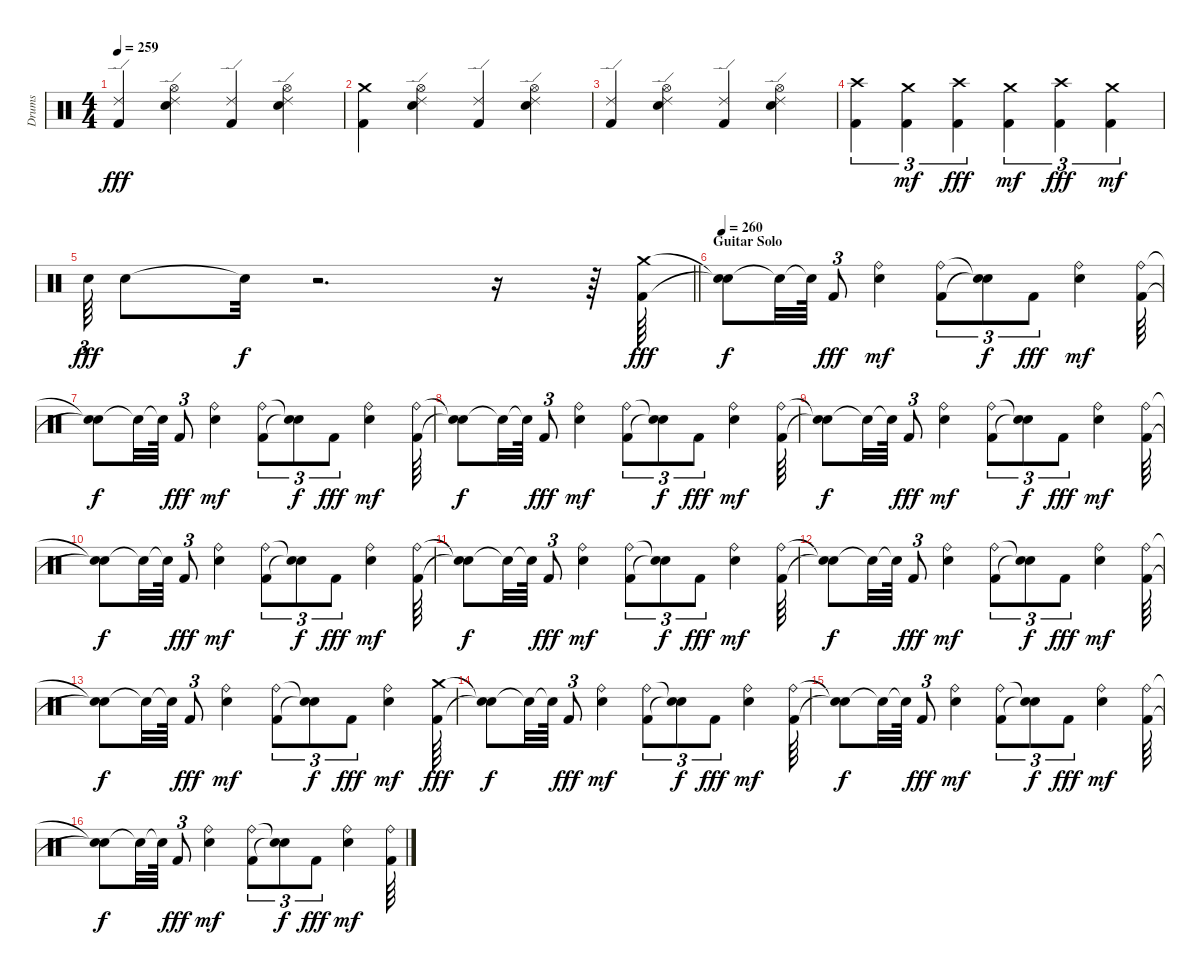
\track ("Drums" "Drums") {instrument percussion}
\staff {score}
\articulation defaults
\ts (4 4)
\tempo 259
\clef neutral
\ks c
("Kick (hit) 2" "Ride (edge) 2").4{dy fff} ("Electric Snare (hit)" "Ride (edge) 2" "Hi-Hat (open)").4 ("Kick (hit) 2" "Ride (edge) 2").4 ("Electric Snare (hit)" "Ride (edge) 2" "Hi-Hat (open)").4 |
("Kick (hit) 2" "Crash medium (hit)").4 ("Electric Snare (hit)" "Ride (edge) 2" "Hi-Hat (open)").4 ("Kick (hit) 2" "Ride (edge) 2").4 ("Electric Snare (hit)" "Ride (edge) 2" "Hi-Hat (open)").4 |
("Kick (hit) 2" "Ride (edge) 2").4 ("Electric Snare (hit)" "Ride (edge) 2" "Hi-Hat (open)").4 ("Kick (hit) 2" "Ride (edge) 2").4 ("Electric Snare (hit)" "Ride (edge) 2" "Hi-Hat (open)").4 |
("Kick (hit) 2" "Crash high (hit)").4{tu (3 2)} ("Kick (hit) 2" "Crash medium (hit)").4{tu (3 2) dy mf} ("Kick (hit) 2" "Crash high (hit)").4{tu (3 2) dy fff} ("Kick (hit) 2" "Crash medium (hit)").4{tu (3 2) dy mf} ("Kick (hit) 2" "Crash high (hit)").4{tu (3 2) dy fff} ("Kick (hit) 2" "Crash medium (hit)").4{tu (3 2) dy mf} |
\barLineRight lightlight "Electric Snare (hit)".64{tu (3 2) dy fff} "Electric Snare (hit)".8 "Snare (hit)"{t}.32{dy f}
r.2{d} r.16 r.64 ("Kick (hit) 2" "Crash medium (hit)").64{dy fff} |
\section ("" "Guitar Solo")
\tempo 260
("Snare (hit)"{t} "Snare (hit)"{t}).8{dy f} "Snare (hit)"{t}.32 "Snare (hit)"{t}.64 "Kick (hit) 2".8{tu (3 2) dy fff} ("Electric Snare (hit)" "Ride (bell)").4{dy mf} ("Kick (hit) 2" "Ride (bell)").8{tu (3 2)} ("Snare (hit)"{t} "Snare (hit)"{t}).8{tu (3 2) dy f} "Kick (hit) 2".8{tu (3 2) dy fff} ("Electric Snare (hit)" "Ride (bell)").4{dy mf} ("Kick (hit) 2" "Ride (bell)").64 |
("Snare (hit)"{t} "Snare (hit)"{t}).8{dy f} "Snare (hit)"{t}.32 "Snare (hit)"{t}.64 "Kick (hit) 2".8{tu (3 2) dy fff} ("Electric Snare (hit)" "Ride (bell)").4{dy mf} ("Kick (hit) 2" "Ride (bell)").8{tu (3 2)} ("Snare (hit)"{t} "Snare (hit)"{t}).8{tu (3 2) dy f} "Kick (hit) 2".8{tu (3 2) dy fff} ("Electric Snare (hit)" "Ride (bell)").4{dy mf} ("Kick (hit) 2" "Ride (bell)").64 |
("Snare (hit)"{t} "Snare (hit)"{t}).8{dy f} "Snare (hit)"{t}.32 "Snare (hit)"{t}.64 "Kick (hit) 2".8{tu (3 2) dy fff} ("Electric Snare (hit)" "Ride (bell)").4{dy mf} ("Kick (hit) 2" "Ride (bell)").8{tu (3 2)} ("Snare (hit)"{t} "Snare (hit)"{t}).8{tu (3 2) dy f} "Kick (hit) 2".8{tu (3 2) dy fff} ("Electric Snare (hit)" "Ride (bell)").4{dy mf} ("Kick (hit) 2" "Ride (bell)").64 |
("Snare (hit)"{t} "Snare (hit)"{t}).8{dy f} "Snare (hit)"{t}.32 "Snare (hit)"{t}.64 "Kick (hit) 2".8{tu (3 2) dy fff} ("Electric Snare (hit)" "Ride (bell)").4{dy mf} ("Kick (hit) 2" "Ride (bell)").8{tu (3 2)} ("Snare (hit)"{t} "Snare (hit)"{t}).8{tu (3 2) dy f} "Kick (hit) 2".8{tu (3 2) dy fff} ("Electric Snare (hit)" "Ride (bell)").4{dy mf} ("Kick (hit) 2" "Ride (bell)").64 |
("Snare (hit)"{t} "Snare (hit)"{t}).8{dy f} "Snare (hit)"{t}.32 "Snare (hit)"{t}.64 "Kick (hit) 2".8{tu (3 2) dy fff} ("Electric Snare (hit)" "Ride (bell)").4{dy mf} ("Kick (hit) 2" "Ride (bell)").8{tu (3 2)} ("Snare (hit)"{t} "Snare (hit)"{t}).8{tu (3 2) dy f} "Kick (hit) 2".8{tu (3 2) dy fff} ("Electric Snare (hit)" "Ride (bell)").4{dy mf} ("Kick (hit) 2" "Ride (bell)").64 |
("Snare (hit)"{t} "Snare (hit)"{t}).8{dy f} "Snare (hit)"{t}.32 "Snare (hit)"{t}.64 "Kick (hit) 2".8{tu (3 2) dy fff} ("Electric Snare (hit)" "Ride (bell)").4{dy mf} ("Kick (hit) 2" "Ride (bell)").8{tu (3 2)} ("Snare (hit)"{t} "Snare (hit)"{t}).8{tu (3 2) dy f} "Kick (hit) 2".8{tu (3 2) dy fff} ("Electric Snare (hit)" "Ride (bell)").4{dy mf} ("Kick (hit) 2" "Ride (bell)").64 |
("Snare (hit)"{t} "Snare (hit)"{t}).8{dy f} "Snare (hit)"{t}.32 "Snare (hit)"{t}.64 "Kick (hit) 2".8{tu (3 2) dy fff} ("Electric Snare (hit)" "Ride (bell)").4{dy mf} ("Kick (hit) 2" "Ride (bell)").8{tu (3 2)} ("Snare (hit)"{t} "Snare (hit)"{t}).8{tu (3 2) dy f} "Kick (hit) 2".8{tu (3 2) dy fff} ("Electric Snare (hit)" "Ride (bell)").4{dy mf} ("Kick (hit) 2" "Ride (bell)").64 |
("Snare (hit)"{t} "Snare (hit)"{t}).8{dy f} "Snare (hit)"{t}.32 "Snare (hit)"{t}.64 "Kick (hit) 2".8{tu (3 2) dy fff} ("Electric Snare (hit)" "Ride (bell)").4{dy mf} ("Kick (hit) 2" "Ride (bell)").8{tu (3 2)} ("Snare (hit)"{t} "Snare (hit)"{t}).8{tu (3 2) dy f} "Kick (hit) 2".8{tu (3 2) dy fff} ("Electric Snare (hit)" "Ride (bell)").4{dy mf} ("Kick (hit) 2" "Crash medium (hit)").64{dy fff} |
("Snare (hit)"{t} "Snare (hit)"{t}).8{dy f} "Snare (hit)"{t}.32 "Snare (hit)"{t}.64 "Kick (hit) 2".8{tu (3 2) dy fff} ("Electric Snare (hit)" "Ride (bell)").4{dy mf} ("Kick (hit) 2" "Ride (bell)").8{tu (3 2)} ("Snare (hit)"{t} "Snare (hit)"{t}).8{tu (3 2) dy f} "Kick (hit) 2".8{tu (3 2) dy fff} ("Electric Snare (hit)" "Ride (bell)").4{dy mf} ("Kick (hit) 2" "Ride (bell)").64 |
("Snare (hit)"{t} "Snare (hit)"{t}).8{dy f} "Snare (hit)"{t}.32 "Snare (hit)"{t}.64 "Kick (hit) 2".8{tu (3 2) dy fff} ("Electric Snare (hit)" "Ride (bell)").4{dy mf} ("Kick (hit) 2" "Ride (bell)").8{tu (3 2)} ("Snare (hit)"{t} "Snare (hit)"{t}).8{tu (3 2) dy f} "Kick (hit) 2".8{tu (3 2) dy fff} ("Electric Snare (hit)" "Ride (bell)").4{dy mf} ("Kick (hit) 2" "Ride (bell)").64 |
("Snare (hit)"{t} "Snare (hit)"{t}).8{dy f} "Snare (hit)"{t}.32 "Snare (hit)"{t}.64 "Kick (hit) 2".8{tu (3 2) dy fff} ("Electric Snare (hit)" "Ride (bell)").4{dy mf} ("Kick (hit) 2" "Ride (bell)").8{tu (3 2)} ("Snare (hit)"{t} "Snare (hit)"{t}).8{tu (3 2) dy f} "Kick (hit) 2".8{tu (3 2) dy fff} ("Electric Snare (hit)" "Ride (bell)").4{dy mf} ("Kick (hit) 2" "Ride (bell)").64
